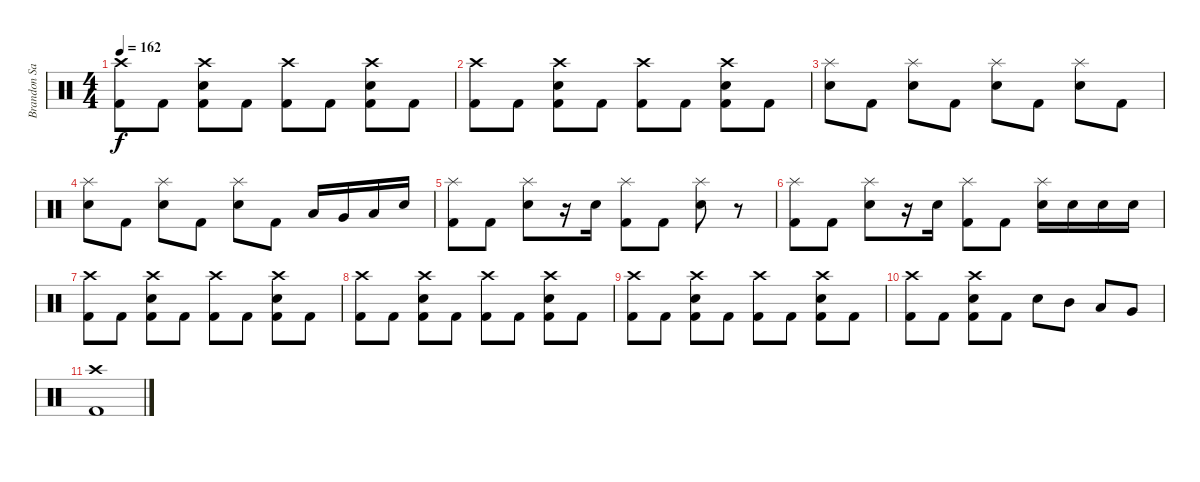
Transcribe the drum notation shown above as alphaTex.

\track ("Brandon Saller" "Brandon Sa") {instrument percussion}
\staff {score}
\articulation defaults
\ts (4 4)
\tempo 162
\clef neutral
\ks c
("Crash high (hit)" "Kick (hit) 2").8{dy f} "Kick (hit) 2".8 ("Crash high (hit)" "Electric Snare (hit)" "Kick (hit) 2").8 "Kick (hit) 2".8 ("Crash high (hit)" "Kick (hit) 2").8 "Kick (hit) 2".8 ("Crash high (hit)" "Electric Snare (hit)" "Kick (hit) 2").8 "Kick (hit) 2".8 |
("Crash high (hit)" "Kick (hit) 2").8 "Kick (hit) 2".8 ("Crash high (hit)" "Electric Snare (hit)" "Kick (hit) 2").8 "Kick (hit) 2".8 ("Crash high (hit)" "Kick (hit) 2").8 "Kick (hit) 2".8 ("Crash high (hit)" "Electric Snare (hit)" "Kick (hit) 2").8 "Kick (hit) 2".8 |
("Splash (hit)" "Electric Snare (hit)").8 "Kick (hit) 2".8 ("Splash (hit)" "Electric Snare (hit)").8 "Kick (hit) 2".8 ("Splash (hit)" "Electric Snare (hit)").8 "Kick (hit) 2".8 ("Splash (hit)" "Electric Snare (hit)").8 "Kick (hit) 2".8 |
("Splash (hit)" "Electric Snare (hit)").8 "Kick (hit) 2".8 ("Splash (hit)" "Electric Snare (hit)").8 "Kick (hit) 2".8 ("Splash (hit)" "Electric Snare (hit)").8 "Kick (hit) 2".8 "Low Tom (hit)".16 "Very Low Tom (hit)".16 "Low Floor Tom (hit)".16 "Electric Snare (hit)".16 |
("Splash (hit)" "Kick (hit) 2").8 "Kick (hit) 2".8 ("Splash (hit)" "Electric Snare (hit)").8 r.16 "Electric Snare (hit)".16 ("Splash (hit)" "Kick (hit) 2").8 "Kick (hit) 2".8 ("Splash (hit)" "Electric Snare (hit)").8 r.8 |
("Splash (hit)" "Kick (hit) 2").8 "Kick (hit) 2".8 ("Splash (hit)" "Electric Snare (hit)").8 r.16 "Electric Snare (hit)".16 ("Splash (hit)" "Kick (hit) 2").8 "Kick (hit) 2".8 ("Splash (hit)" "Electric Snare (hit)").16 "Electric Snare (hit)".16 "Electric Snare (hit)".16 "Electric Snare (hit)".16 |
("Crash high (hit)" "Kick (hit) 2").8 "Kick (hit) 2".8 ("Crash high (hit)" "Electric Snare (hit)" "Kick (hit) 2").8 "Kick (hit) 2".8 ("Crash high (hit)" "Kick (hit) 2").8 "Kick (hit) 2".8 ("Crash high (hit)" "Electric Snare (hit)" "Kick (hit) 2").8 "Kick (hit) 2".8 |
("Crash high (hit)" "Kick (hit) 2").8 "Kick (hit) 2".8 ("Crash high (hit)" "Electric Snare (hit)" "Kick (hit) 2").8 "Kick (hit) 2".8 ("Crash high (hit)" "Kick (hit) 2").8 "Kick (hit) 2".8 ("Crash high (hit)" "Electric Snare (hit)" "Kick (hit) 2").8 "Kick (hit) 2".8 |
("Crash high (hit)" "Kick (hit) 2").8 "Kick (hit) 2".8 ("Crash high (hit)" "Electric Snare (hit)" "Kick (hit) 2").8 "Kick (hit) 2".8 ("Crash high (hit)" "Kick (hit) 2").8 "Kick (hit) 2".8 ("Crash high (hit)" "Electric Snare (hit)" "Kick (hit) 2").8 "Kick (hit) 2".8 |
("Crash high (hit)" "Kick (hit) 2").8 "Kick (hit) 2".8 ("Crash high (hit)" "Electric Snare (hit)" "Kick (hit) 2").8 "Kick (hit) 2".8 "Electric Snare (hit)".8 "Mid Tom (hit)".8 "Low Tom (hit)".8 "Very Low Tom (hit)".8 |
("Crash high (hit)" "Kick (hit) 2").1
